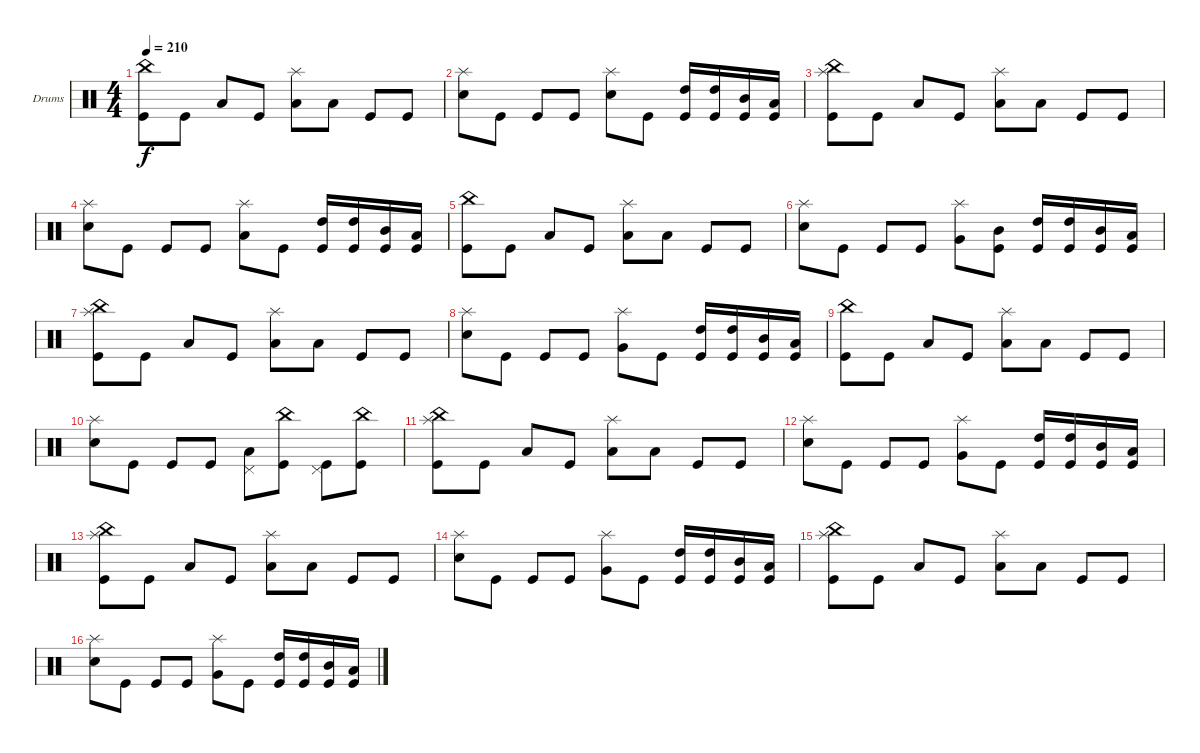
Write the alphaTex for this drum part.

\defaultSystemsLayout 4
\bracketExtendMode groupsimilarinstruments
\firstSystemTrackNameOrientation horizontal
\otherSystemsTrackNameOrientation horizontal
\track ("Drumkit" "Drums") {instrument percussion}
\staff {score}
\articulation defaults
\ts (4 4)
\tempo 210
\clef neutral
\ks c
("China (hit)" "Kick (hit)").8{dy f} "Kick (hit)".8 "Low Tom (hit)".8 "Kick (hit)".8 ("Splash (hit)" "Low Tom (hit)").8 "Low Tom (hit)".8 "Kick (hit)".8 "Kick (hit)".8 |
("Splash (hit)" "Snare (hit) 2").8 "Kick (hit)".8 "Kick (hit)".8 "Kick (hit)".8 ("Snare (hit) 2" "Splash (hit)").8 "Kick (hit)".8 ("High Tom (hit)" "Kick (hit)").16 ("High Tom (hit)" "Kick (hit)").16 ("Mid Tom (hit)" "Kick (hit)").16 ("Low Tom (hit)" "Kick (hit)").16 |
("Kick (hit)" "Splash (hit)" "China (hit)").8 "Kick (hit)".8 "Low Tom (hit)".8 "Kick (hit)".8 ("Splash (hit)" "Low Tom (hit)").8 "Low Tom (hit)".8 "Kick (hit)".8 "Kick (hit)".8 |
("Snare (hit) 2" "Splash (hit)").8 "Kick (hit)".8 "Kick (hit)".8 "Kick (hit)".8 ("Splash (hit)" "Low Tom (hit)").8 "Kick (hit)".8 ("High Tom (hit)" "Kick (hit)").16 ("High Tom (hit)" "Kick (hit)").16 ("Mid Tom (hit)" "Kick (hit)").16 ("Low Tom (hit)" "Kick (hit)").16 |
("China (hit)" "Kick (hit)").8 "Kick (hit)".8 "Low Tom (hit)".8 "Kick (hit)".8 ("Splash (hit)" "Low Tom (hit)").8 "Low Tom (hit)".8 "Kick (hit)".8 "Kick (hit)".8 |
("Splash (hit)" "Snare (hit) 2").8 "Kick (hit)".8 "Kick (hit)".8 "Kick (hit)".8 ("Splash (hit)" "Very Low Tom (hit)").8 ("Kick (hit)" "Mid Tom (hit)").8 ("High Tom (hit)" "Kick (hit)").16 ("High Tom (hit)" "Kick (hit)").16 ("Mid Tom (hit)" "Kick (hit)").16 ("Low Tom (hit)" "Kick (hit)").16 |
("Kick (hit)" "Splash (hit)" "China (hit)").8 "Kick (hit)".8 "Low Tom (hit)".8 "Kick (hit)".8 ("Splash (hit)" "Low Tom (hit)").8 "Low Tom (hit)".8 "Kick (hit)".8 "Kick (hit)".8 |
("Snare (hit) 2" "Splash (hit)").8 "Kick (hit)".8 "Kick (hit)".8 "Kick (hit)".8 ("Splash (hit)" "Very Low Tom (hit)").8 "Kick (hit)".8 ("High Tom (hit)" "Kick (hit)").16 ("High Tom (hit)" "Kick (hit)").16 ("Mid Tom (hit)" "Kick (hit)").16 ("Low Tom (hit)" "Kick (hit)").16 |
("China (hit)" "Kick (hit)").8 "Kick (hit)".8 "Low Tom (hit)".8 "Kick (hit)".8 ("Splash (hit)" "Low Tom (hit)").8 "Low Tom (hit)".8 "Kick (hit)".8 "Kick (hit)".8 |
("Splash (hit)" "Snare (hit) 2").8 "Kick (hit)".8 "Kick (hit)".8 "Kick (hit)".8 ("Low Tom (hit)" "Pedal Hi-Hat (hit)").8 ("Kick (hit)" "China (hit)").8 ("Kick (hit)" "Pedal Hi-Hat (hit)").8 ("Kick (hit)" "China (hit)").8 |
("Kick (hit)" "Splash (hit)" "China (hit)").8 "Kick (hit)".8 "Low Tom (hit)".8 "Kick (hit)".8 ("Splash (hit)" "Low Tom (hit)").8 "Low Tom (hit)".8 "Kick (hit)".8 "Kick (hit)".8 |
("Snare (hit) 2" "Splash (hit)").8 "Kick (hit)".8 "Kick (hit)".8 "Kick (hit)".8 ("Splash (hit)" "Very Low Tom (hit)").8 "Kick (hit)".8 ("High Tom (hit)" "Kick (hit)").16 ("High Tom (hit)" "Kick (hit)").16 ("Mid Tom (hit)" "Kick (hit)").16 ("Low Tom (hit)" "Kick (hit)").16 |
("Kick (hit)" "Splash (hit)" "China (hit)").8 "Kick (hit)".8 "Low Tom (hit)".8 "Kick (hit)".8 ("Splash (hit)" "Low Tom (hit)").8 "Low Tom (hit)".8 "Kick (hit)".8 "Kick (hit)".8 |
("Snare (hit) 2" "Splash (hit)").8 "Kick (hit)".8 "Kick (hit)".8 "Kick (hit)".8 ("Splash (hit)" "Very Low Tom (hit)").8 "Kick (hit)".8 ("High Tom (hit)" "Kick (hit)").16 ("High Tom (hit)" "Kick (hit)").16 ("Mid Tom (hit)" "Kick (hit)").16 ("Low Tom (hit)" "Kick (hit)").16 |
("Kick (hit)" "Splash (hit)" "China (hit)").8 "Kick (hit)".8 "Low Tom (hit)".8 "Kick (hit)".8 ("Splash (hit)" "Low Tom (hit)").8 "Low Tom (hit)".8 "Kick (hit)".8 "Kick (hit)".8 |
("Snare (hit) 2" "Splash (hit)").8 "Kick (hit)".8 "Kick (hit)".8 "Kick (hit)".8 ("Splash (hit)" "Very Low Tom (hit)").8 "Kick (hit)".8 ("High Tom (hit)" "Kick (hit)").16 ("High Tom (hit)" "Kick (hit)").16 ("Mid Tom (hit)" "Kick (hit)").16 ("Low Tom (hit)" "Kick (hit)").16
